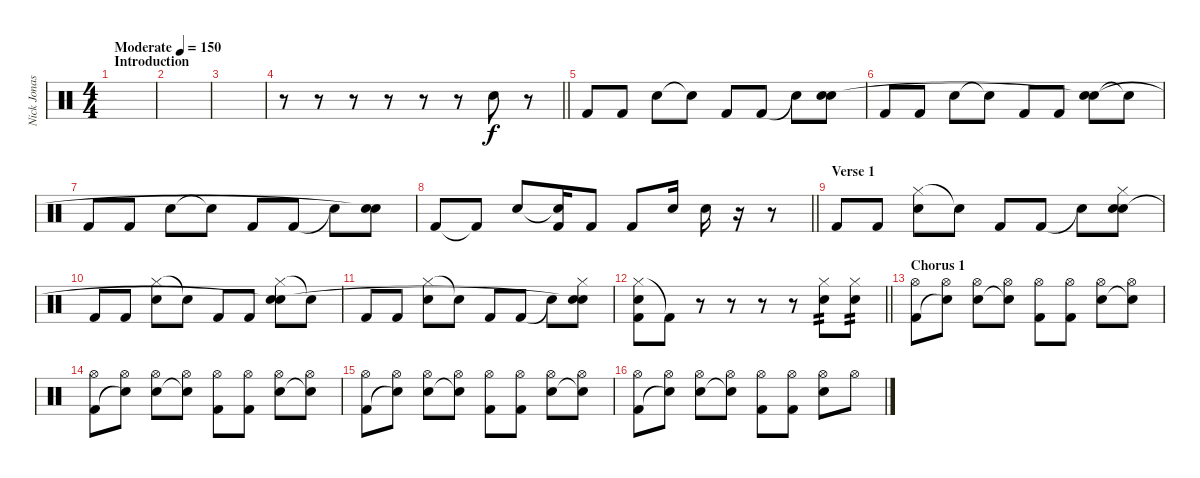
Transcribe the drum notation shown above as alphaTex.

\track ("Nick Jonas Drums" "Nick Jonas") {instrument percussion}
\staff {score}
\articulation defaults
\ts (4 4)
\section ("" "Introduction")
\tempo (150 "Moderate")
\clef neutral
\ks c
|
|
|
\barLineRight lightlight
r.8 r.8 r.8 r.8 r.8 r.8 "Electric Snare (hit)".8 r.8 |
"Kick (hit) 2".8 "Kick (hit) 2".8 "Electric Snare (hit)".8 "Snare (hit)"{t}.8 "Kick (hit) 2".8 "Kick (hit) 2".8 "Snare (hit)"{t}.8 ("Electric Snare (hit)" "Snare (hit)").8 |
"Kick (hit) 2".8 "Kick (hit) 2".8 "Electric Snare (hit)".8 "Snare (hit)"{t}.8 "Kick (hit) 2".8 "Kick (hit) 2".8 ("Electric Snare (hit)" "Snare (hit)"{t}).8 "Snare (hit)"{t}.8 |
"Kick (hit) 2".8 "Kick (hit) 2".8 "Electric Snare (hit)".8 "Snare (hit)"{t}.8 "Kick (hit) 2".8 "Kick (hit) 2".8 "Snare (hit)"{t}.8 ("Electric Snare (hit)" "Snare (hit)"{t}).8 |
\barLineRight lightlight "Kick (hit) 2".8 "Kick (hit) 2"{t}.8 "Electric Snare (hit)".8
("Snare (hit)"{t} "Kick (hit) 2").16 "Kick (hit) 2".8 "Kick (hit) 2".8 "Electric Snare (hit)".16 "Electric Snare (hit)".16 r.16 r.8 |
\section ("" "Verse 1")
"Kick (hit) 2".8 "Kick (hit) 2".8 ("Hi-Hat (closed)" "Electric Snare (hit)").8 "Snare (hit)"{t}.8 "Kick (hit) 2".8 "Kick (hit) 2".8 "Snare (hit)"{t}.8 ("Hi-Hat (closed)" "Electric Snare (hit)" "Snare (hit)").8 |
"Kick (hit) 2".8 "Kick (hit) 2".8 ("Hi-Hat (closed)" "Electric Snare (hit)").8 "Snare (hit)"{t}.8 "Kick (hit) 2".8 "Kick (hit) 2".8 ("Hi-Hat (closed)" "Electric Snare (hit)" "Snare (hit)"{t}).8 "Snare (hit)"{t}.8 |
"Kick (hit) 2".8 "Kick (hit) 2".8 ("Hi-Hat (closed)" "Electric Snare (hit)").8 "Snare (hit)"{t}.8 "Kick (hit) 2".8 "Kick (hit) 2".8 "Snare (hit)"{t}.8 ("Hi-Hat (closed)" "Electric Snare (hit)" "Snare (hit)"{t}).8 |
\barLineRight lightlight
("Hi-Hat (closed)" "Electric Snare (hit)" "Kick (hit) 2").8 "Kick (hit) 2"{t}.8 r.8 r.8 r.8 r.8 ("Hi-Hat (closed)" "Electric Snare (hit)").8{tp 2} ("Hi-Hat (closed)" "Electric Snare (hit)").8{tp 2} |
\section ("" "Chorus 1")
("Hi-Hat (open)" "Kick (hit) 2").8 ("Hi-Hat (open)" "Snare (hit)"{t}).8 ("Hi-Hat (open)" "Electric Snare (hit)").8 ("Hi-Hat (open)" "Snare (hit)"{t}).8 ("Hi-Hat (open)" "Kick (hit) 2").8 ("Hi-Hat (open)" "Kick (hit) 2").8 ("Hi-Hat (open)" "Electric Snare (hit)").8 ("Hi-Hat (open)" "Snare (hit)"{t}).8 |
("Hi-Hat (open)" "Kick (hit) 2").8 ("Hi-Hat (open)" "Snare (hit)"{t}).8 ("Hi-Hat (open)" "Electric Snare (hit)").8 ("Hi-Hat (open)" "Snare (hit)"{t}).8 ("Hi-Hat (open)" "Kick (hit) 2").8 ("Hi-Hat (open)" "Kick (hit) 2").8 ("Hi-Hat (open)" "Electric Snare (hit)").8 ("Hi-Hat (open)" "Snare (hit)"{t}).8 |
("Hi-Hat (open)" "Kick (hit) 2").8 ("Hi-Hat (open)" "Snare (hit)"{t}).8 ("Hi-Hat (open)" "Electric Snare (hit)").8 ("Hi-Hat (open)" "Snare (hit)"{t}).8 ("Hi-Hat (open)" "Kick (hit) 2").8 ("Hi-Hat (open)" "Kick (hit) 2").8 ("Hi-Hat (open)" "Electric Snare (hit)").8 ("Hi-Hat (open)" "Snare (hit)"{t}).8 |
("Hi-Hat (open)" "Kick (hit) 2").8 ("Hi-Hat (open)" "Snare (hit)"{t}).8 ("Hi-Hat (open)" "Electric Snare (hit)").8 ("Hi-Hat (open)" "Snare (hit)"{t}).8 ("Hi-Hat (open)" "Kick (hit) 2").8 ("Hi-Hat (open)" "Kick (hit) 2").8 ("Hi-Hat (open)" "Electric Snare (hit)").8 "Hi-Hat (open)".8
